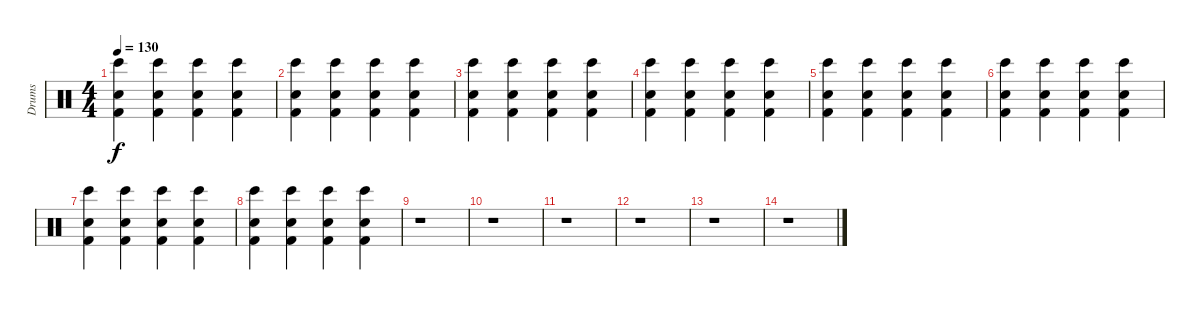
\track ("Drums" "Drums") {instrument percussion}
\staff {score}
\articulation defaults
\ts (4 4)
\tempo 130
\clef neutral
\ks c
("Electric Snare (hit)" "Kick (hit) 2" "Bongo High (hit)").4{dy f} ("Electric Snare (hit)" "Kick (hit) 2" "Bongo High (hit)").4 ("Electric Snare (hit)" "Kick (hit) 2" "Bongo High (hit)").4 ("Electric Snare (hit)" "Kick (hit) 2" "Bongo High (hit)").4 |
("Electric Snare (hit)" "Kick (hit) 2" "Bongo High (hit)").4 ("Electric Snare (hit)" "Kick (hit) 2" "Bongo High (hit)").4 ("Electric Snare (hit)" "Kick (hit) 2" "Bongo High (hit)").4 ("Electric Snare (hit)" "Kick (hit) 2" "Bongo High (hit)").4 |
("Electric Snare (hit)" "Kick (hit) 2" "Bongo High (hit)").4 ("Electric Snare (hit)" "Kick (hit) 2" "Bongo High (hit)").4 ("Electric Snare (hit)" "Kick (hit) 2" "Bongo High (hit)").4 ("Electric Snare (hit)" "Kick (hit) 2" "Bongo High (hit)").4 |
("Electric Snare (hit)" "Kick (hit) 2" "Bongo High (hit)").4 ("Electric Snare (hit)" "Kick (hit) 2" "Bongo High (hit)").4 ("Electric Snare (hit)" "Kick (hit) 2" "Bongo High (hit)").4 ("Electric Snare (hit)" "Kick (hit) 2" "Bongo High (hit)").4 |
("Electric Snare (hit)" "Kick (hit) 2" "Bongo High (hit)").4 ("Electric Snare (hit)" "Kick (hit) 2" "Bongo High (hit)").4 ("Electric Snare (hit)" "Kick (hit) 2" "Bongo High (hit)").4 ("Electric Snare (hit)" "Kick (hit) 2" "Bongo High (hit)").4 |
("Electric Snare (hit)" "Kick (hit) 2" "Bongo High (hit)").4 ("Electric Snare (hit)" "Kick (hit) 2" "Bongo High (hit)").4 ("Electric Snare (hit)" "Kick (hit) 2" "Bongo High (hit)").4 ("Electric Snare (hit)" "Kick (hit) 2" "Bongo High (hit)").4 |
("Electric Snare (hit)" "Kick (hit) 2" "Bongo High (hit)").4 ("Electric Snare (hit)" "Kick (hit) 2" "Bongo High (hit)").4 ("Electric Snare (hit)" "Kick (hit) 2" "Bongo High (hit)").4 ("Electric Snare (hit)" "Kick (hit) 2" "Bongo High (hit)").4 |
("Electric Snare (hit)" "Kick (hit) 2" "Bongo High (hit)").4 ("Electric Snare (hit)" "Kick (hit) 2" "Bongo High (hit)").4 ("Electric Snare (hit)" "Kick (hit) 2" "Bongo High (hit)").4 ("Electric Snare (hit)" "Kick (hit) 2" "Bongo High (hit)").4 |
r.1 |
r.1 |
r.1 |
r.1 |
r.1 |
r.1
